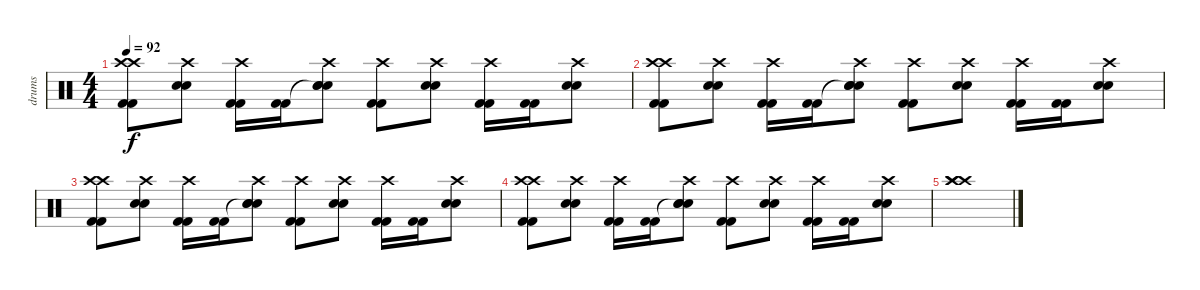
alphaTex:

\track ("drums" "drums") {instrument percussion}
\staff {score}
\articulation defaults
\ts (4 4)
\tempo 92
\clef neutral
\ks c
("Crash high (hit)" "Crash high (hit)" "Kick (hit) 2" "Kick (hit) 2").8{dy f} ("Crash high (hit)" "Electric Snare (hit)" "Electric Snare (hit)").8 ("Crash high (hit)" "Kick (hit) 2" "Kick (hit) 2").16 ("Kick (hit) 2" "Kick (hit) 2").16 ("Crash high (hit)" "Snare (hit)"{t} "Electric Snare (hit)" "Electric Snare (hit)").8 ("Crash high (hit)" "Kick (hit) 2" "Kick (hit) 2").8 ("Crash high (hit)" "Electric Snare (hit)" "Electric Snare (hit)").8 ("Crash high (hit)" "Kick (hit) 2" "Kick (hit) 2").16 ("Kick (hit) 2" "Kick (hit) 2").16 ("Crash high (hit)" "Electric Snare (hit)" "Electric Snare (hit)").8 |
("Crash high (hit)" "Crash high (hit)" "Kick (hit) 2" "Kick (hit) 2").8 ("Crash high (hit)" "Electric Snare (hit)" "Electric Snare (hit)").8 ("Crash high (hit)" "Kick (hit) 2" "Kick (hit) 2").16 ("Kick (hit) 2" "Kick (hit) 2").16 ("Crash high (hit)" "Snare (hit)"{t} "Electric Snare (hit)" "Electric Snare (hit)").8 ("Crash high (hit)" "Kick (hit) 2" "Kick (hit) 2").8 ("Crash high (hit)" "Electric Snare (hit)" "Electric Snare (hit)").8 ("Crash high (hit)" "Kick (hit) 2" "Kick (hit) 2").16 ("Kick (hit) 2" "Kick (hit) 2").16 ("Crash high (hit)" "Electric Snare (hit)" "Electric Snare (hit)").8 |
("Crash high (hit)" "Crash high (hit)" "Kick (hit) 2" "Kick (hit) 2").8 ("Crash high (hit)" "Electric Snare (hit)" "Electric Snare (hit)").8 ("Crash high (hit)" "Kick (hit) 2" "Kick (hit) 2").16 ("Kick (hit) 2" "Kick (hit) 2").16 ("Crash high (hit)" "Snare (hit)"{t} "Electric Snare (hit)" "Electric Snare (hit)").8 ("Crash high (hit)" "Kick (hit) 2" "Kick (hit) 2").8 ("Crash high (hit)" "Electric Snare (hit)" "Electric Snare (hit)").8 ("Crash high (hit)" "Kick (hit) 2" "Kick (hit) 2").16 ("Kick (hit) 2" "Kick (hit) 2").16 ("Crash high (hit)" "Electric Snare (hit)" "Electric Snare (hit)").8 |
("Crash high (hit)" "Crash high (hit)" "Kick (hit) 2" "Kick (hit) 2").8 ("Crash high (hit)" "Electric Snare (hit)" "Electric Snare (hit)").8 ("Crash high (hit)" "Kick (hit) 2" "Kick (hit) 2").16 ("Kick (hit) 2" "Kick (hit) 2").16 ("Crash high (hit)" "Snare (hit)"{t} "Electric Snare (hit)" "Electric Snare (hit)").8 ("Crash high (hit)" "Kick (hit) 2" "Kick (hit) 2").8 ("Crash high (hit)" "Electric Snare (hit)" "Electric Snare (hit)").8 ("Crash high (hit)" "Kick (hit) 2" "Kick (hit) 2").16 ("Kick (hit) 2" "Kick (hit) 2").16 ("Crash high (hit)" "Electric Snare (hit)" "Electric Snare (hit)").8 |
("Crash high (hit)" "Crash high (hit)" "Crash high (hit)").1
